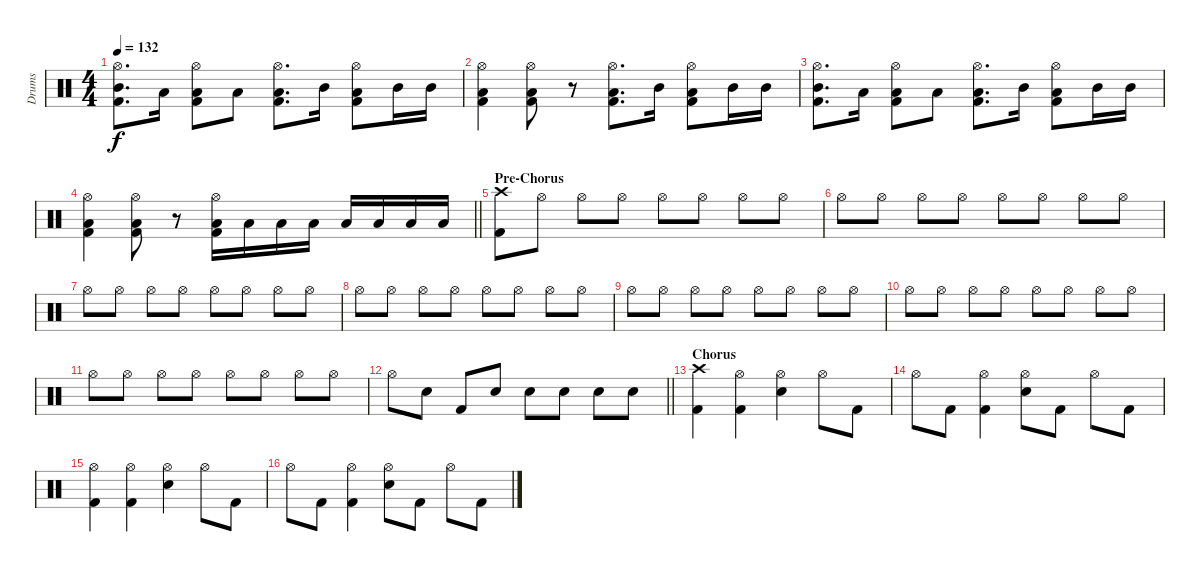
\track ("Drums" "Drums") {instrument percussion}
\staff {score}
\articulation defaults
\ts (4 4)
\tempo 132
\clef neutral
\ks c
("Hi-Hat (open)" "Mid Tom (hit)" "Kick (hit) 2").8{d dy f} "Low Tom (hit)".16 ("Hi-Hat (open)" "Low Tom (hit)" "Kick (hit) 2").8 "Low Tom (hit)".8 ("Hi-Hat (open)" "Low Tom (hit)" "Kick (hit) 2").8{d} "Mid Tom (hit)".16 ("Hi-Hat (open)" "Low Tom (hit)" "Kick (hit) 2").8 "Mid Tom (hit)".16 "Mid Tom (hit)".16 |
("Hi-Hat (open)" "Low Tom (hit)" "Kick (hit) 2").4 ("Hi-Hat (open)" "Low Tom (hit)" "Kick (hit) 2").8 r.8 ("Hi-Hat (open)" "Low Tom (hit)" "Kick (hit) 2").8{d} "Mid Tom (hit)".16 ("Hi-Hat (open)" "Low Tom (hit)" "Kick (hit) 2").8 "Mid Tom (hit)".16 "Mid Tom (hit)".16 |
("Hi-Hat (open)" "Mid Tom (hit)" "Kick (hit) 2").8{d} "Low Tom (hit)".16 ("Hi-Hat (open)" "Low Tom (hit)" "Kick (hit) 2").8 "Low Tom (hit)".8 ("Hi-Hat (open)" "Low Tom (hit)" "Kick (hit) 2").8{d} "Mid Tom (hit)".16 ("Hi-Hat (open)" "Low Tom (hit)" "Kick (hit) 2").8 "Mid Tom (hit)".16 "Mid Tom (hit)".16 |
\barLineRight lightlight
("Hi-Hat (open)" "Low Tom (hit)" "Kick (hit) 2").4 ("Hi-Hat (open)" "Low Tom (hit)" "Kick (hit) 2").8 r.8 ("Hi-Hat (open)" "Low Tom (hit)" "Kick (hit) 2").16 "Low Tom (hit)".16 "Low Tom (hit)".16 "Low Tom (hit)".16 "Low Tom (hit)".16 "Low Tom (hit)".16 "Low Tom (hit)".16 "Low Tom (hit)".16 |
\section ("" "Pre-Chorus")
("Crash high (hit)" "Kick (hit) 2").8 "Hi-Hat (open)".8{volume 5} "Hi-Hat (open)".8 "Hi-Hat (open)".8 "Hi-Hat (open)".8 "Hi-Hat (open)".8 "Hi-Hat (open)".8 "Hi-Hat (open)".8 |
"Hi-Hat (open)".8 "Hi-Hat (open)".8 "Hi-Hat (open)".8 "Hi-Hat (open)".8 "Hi-Hat (open)".8 "Hi-Hat (open)".8 "Hi-Hat (open)".8 "Hi-Hat (open)".8 |
"Hi-Hat (open)".8 "Hi-Hat (open)".8 "Hi-Hat (open)".8 "Hi-Hat (open)".8 "Hi-Hat (open)".8 "Hi-Hat (open)".8 "Hi-Hat (open)".8 "Hi-Hat (open)".8 |
"Hi-Hat (open)".8 "Hi-Hat (open)".8 "Hi-Hat (open)".8 "Hi-Hat (open)".8 "Hi-Hat (open)".8 "Hi-Hat (open)".8 "Hi-Hat (open)".8 "Hi-Hat (open)".8 |
"Hi-Hat (open)".8 "Hi-Hat (open)".8 "Hi-Hat (open)".8 "Hi-Hat (open)".8 "Hi-Hat (open)".8 "Hi-Hat (open)".8 "Hi-Hat (open)".8 "Hi-Hat (open)".8 |
"Hi-Hat (open)".8 "Hi-Hat (open)".8 "Hi-Hat (open)".8 "Hi-Hat (open)".8 "Hi-Hat (open)".8 "Hi-Hat (open)".8 "Hi-Hat (open)".8 "Hi-Hat (open)".8 |
"Hi-Hat (open)".8 "Hi-Hat (open)".8 "Hi-Hat (open)".8 "Hi-Hat (open)".8 "Hi-Hat (open)".8 "Hi-Hat (open)".8 "Hi-Hat (open)".8 "Hi-Hat (open)".8{volume 13} |
\barLineRight lightlight "Hi-Hat (open)".8 "Electric Snare (hit)".8 "Kick (hit) 2".8 "Electric Snare (hit)".8{volume 5} "Electric Snare (hit)".8{volume 13} "Electric Snare (hit)".8 "Electric Snare (hit)".8 "Electric Snare (hit)".8
|
\section ("" "Chorus")
("Crash high (hit)" "Kick (hit) 2").4 ("Hi-Hat (open)" "Kick (hit) 2").4 ("Hi-Hat (open)" "Electric Snare (hit)").4 "Hi-Hat (open)".8 "Kick (hit) 2".8 |
"Hi-Hat (open)".8 "Kick (hit) 2".8 ("Hi-Hat (open)" "Kick (hit) 2").4 ("Hi-Hat (open)" "Electric Snare (hit)").8 "Kick (hit) 2".8 "Hi-Hat (open)".8 "Kick (hit) 2".8 |
("Hi-Hat (open)" "Kick (hit) 2").4 ("Hi-Hat (open)" "Kick (hit) 2").4 ("Hi-Hat (open)" "Electric Snare (hit)").4 "Hi-Hat (open)".8 "Kick (hit) 2".8 |
"Hi-Hat (open)".8 "Kick (hit) 2".8 ("Hi-Hat (open)" "Kick (hit) 2").4 ("Hi-Hat (open)" "Electric Snare (hit)").8 "Kick (hit) 2".8 "Hi-Hat (open)".8 "Kick (hit) 2".8
